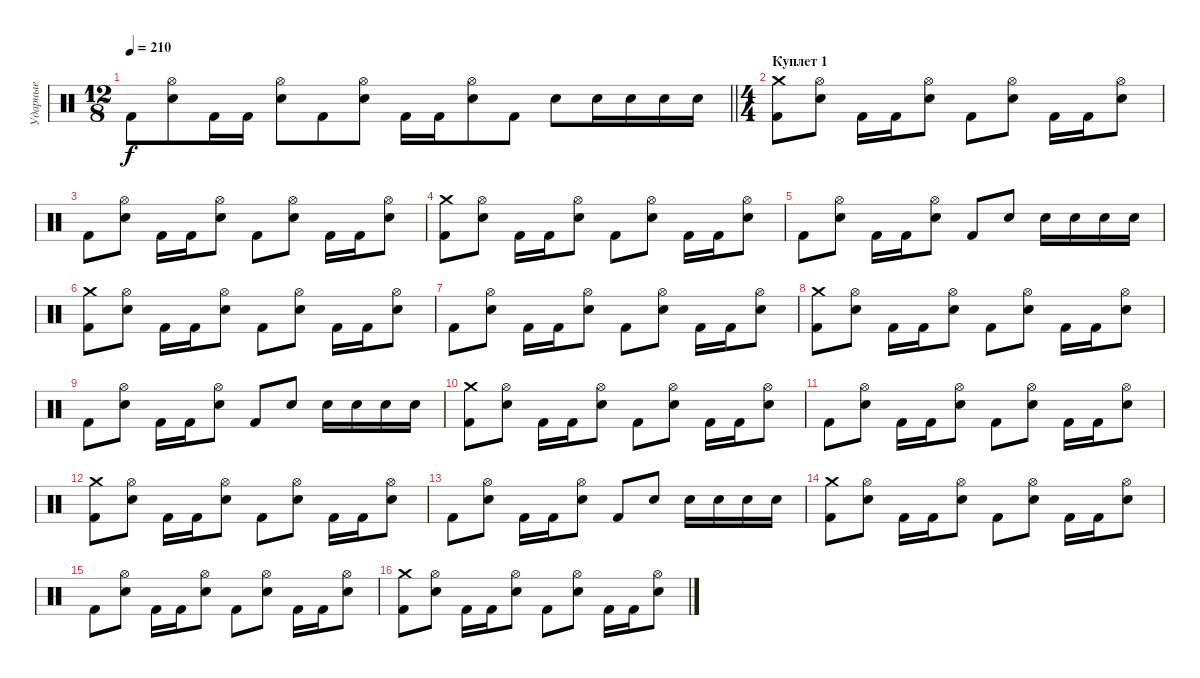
\track ("Ударные" "Ударные") {instrument percussion}
\staff {score}
\articulation defaults
\ts (12 8)
\tempo 210
\clef neutral
\barLineRight lightlight
\ks c "Kick (hit) 2".8{dy f}
("Electric Snare (hit)" "Hi-Hat (open)").8 "Kick (hit) 2".16 "Kick (hit) 2".16 ("Electric Snare (hit)" "Hi-Hat (open)").8 "Kick (hit) 2".8 ("Electric Snare (hit)" "Hi-Hat (open)").8 "Kick (hit) 2".16 "Kick (hit) 2".16 ("Electric Snare (hit)" "Hi-Hat (open)").8 "Kick (hit) 2".8 "Electric Snare (hit)".8 "Electric Snare (hit)".16 "Electric Snare (hit)".16 "Electric Snare (hit)".16 "Electric Snare (hit)".16 |
\ts (4 4)
\section ("" "Куплет 1")
("Kick (hit) 2" "Crash medium (hit)").8 ("Electric Snare (hit)" "Hi-Hat (open)").8 "Kick (hit) 2".16 "Kick (hit) 2".16 ("Electric Snare (hit)" "Hi-Hat (open)").8 "Kick (hit) 2".8 ("Electric Snare (hit)" "Hi-Hat (open)").8 "Kick (hit) 2".16 "Kick (hit) 2".16 ("Electric Snare (hit)" "Hi-Hat (open)").8 |
"Kick (hit) 2".8 ("Electric Snare (hit)" "Hi-Hat (open)").8 "Kick (hit) 2".16 "Kick (hit) 2".16 ("Electric Snare (hit)" "Hi-Hat (open)").8 "Kick (hit) 2".8 ("Electric Snare (hit)" "Hi-Hat (open)").8 "Kick (hit) 2".16 "Kick (hit) 2".16 ("Electric Snare (hit)" "Hi-Hat (open)").8 |
("Kick (hit) 2" "Crash medium (hit)").8 ("Electric Snare (hit)" "Hi-Hat (open)").8 "Kick (hit) 2".16 "Kick (hit) 2".16 ("Electric Snare (hit)" "Hi-Hat (open)").8 "Kick (hit) 2".8 ("Electric Snare (hit)" "Hi-Hat (open)").8 "Kick (hit) 2".16 "Kick (hit) 2".16 ("Electric Snare (hit)" "Hi-Hat (open)").8 |
"Kick (hit) 2".8 ("Electric Snare (hit)" "Hi-Hat (open)").8 "Kick (hit) 2".16 "Kick (hit) 2".16 ("Electric Snare (hit)" "Hi-Hat (open)").8 "Kick (hit) 2".8 "Electric Snare (hit)".8 "Electric Snare (hit)".16 "Electric Snare (hit)".16 "Electric Snare (hit)".16 "Electric Snare (hit)".16 |
("Kick (hit) 2" "Crash medium (hit)").8 ("Electric Snare (hit)" "Hi-Hat (open)").8 "Kick (hit) 2".16 "Kick (hit) 2".16 ("Electric Snare (hit)" "Hi-Hat (open)").8 "Kick (hit) 2".8 ("Electric Snare (hit)" "Hi-Hat (open)").8 "Kick (hit) 2".16 "Kick (hit) 2".16 ("Electric Snare (hit)" "Hi-Hat (open)").8 |
"Kick (hit) 2".8 ("Electric Snare (hit)" "Hi-Hat (open)").8 "Kick (hit) 2".16 "Kick (hit) 2".16 ("Electric Snare (hit)" "Hi-Hat (open)").8 "Kick (hit) 2".8 ("Electric Snare (hit)" "Hi-Hat (open)").8 "Kick (hit) 2".16 "Kick (hit) 2".16 ("Electric Snare (hit)" "Hi-Hat (open)").8 |
("Kick (hit) 2" "Crash medium (hit)").8 ("Electric Snare (hit)" "Hi-Hat (open)").8 "Kick (hit) 2".16 "Kick (hit) 2".16 ("Electric Snare (hit)" "Hi-Hat (open)").8 "Kick (hit) 2".8 ("Electric Snare (hit)" "Hi-Hat (open)").8 "Kick (hit) 2".16 "Kick (hit) 2".16 ("Electric Snare (hit)" "Hi-Hat (open)").8 |
"Kick (hit) 2".8 ("Electric Snare (hit)" "Hi-Hat (open)").8 "Kick (hit) 2".16 "Kick (hit) 2".16 ("Electric Snare (hit)" "Hi-Hat (open)").8 "Kick (hit) 2".8 "Electric Snare (hit)".8 "Electric Snare (hit)".16 "Electric Snare (hit)".16 "Electric Snare (hit)".16 "Electric Snare (hit)".16 |
("Kick (hit) 2" "Crash medium (hit)").8 ("Electric Snare (hit)" "Hi-Hat (open)").8 "Kick (hit) 2".16 "Kick (hit) 2".16 ("Electric Snare (hit)" "Hi-Hat (open)").8 "Kick (hit) 2".8 ("Electric Snare (hit)" "Hi-Hat (open)").8 "Kick (hit) 2".16 "Kick (hit) 2".16 ("Electric Snare (hit)" "Hi-Hat (open)").8 |
"Kick (hit) 2".8 ("Electric Snare (hit)" "Hi-Hat (open)").8 "Kick (hit) 2".16 "Kick (hit) 2".16 ("Electric Snare (hit)" "Hi-Hat (open)").8 "Kick (hit) 2".8 ("Electric Snare (hit)" "Hi-Hat (open)").8 "Kick (hit) 2".16 "Kick (hit) 2".16 ("Electric Snare (hit)" "Hi-Hat (open)").8 |
("Kick (hit) 2" "Crash medium (hit)").8 ("Electric Snare (hit)" "Hi-Hat (open)").8 "Kick (hit) 2".16 "Kick (hit) 2".16 ("Electric Snare (hit)" "Hi-Hat (open)").8 "Kick (hit) 2".8 ("Electric Snare (hit)" "Hi-Hat (open)").8 "Kick (hit) 2".16 "Kick (hit) 2".16 ("Electric Snare (hit)" "Hi-Hat (open)").8 |
"Kick (hit) 2".8 ("Electric Snare (hit)" "Hi-Hat (open)").8 "Kick (hit) 2".16 "Kick (hit) 2".16 ("Electric Snare (hit)" "Hi-Hat (open)").8 "Kick (hit) 2".8 "Electric Snare (hit)".8 "Electric Snare (hit)".16 "Electric Snare (hit)".16 "Electric Snare (hit)".16 "Electric Snare (hit)".16 |
("Kick (hit) 2" "Crash medium (hit)").8 ("Electric Snare (hit)" "Hi-Hat (open)").8 "Kick (hit) 2".16 "Kick (hit) 2".16 ("Electric Snare (hit)" "Hi-Hat (open)").8 "Kick (hit) 2".8 ("Electric Snare (hit)" "Hi-Hat (open)").8 "Kick (hit) 2".16 "Kick (hit) 2".16 ("Electric Snare (hit)" "Hi-Hat (open)").8 |
"Kick (hit) 2".8 ("Electric Snare (hit)" "Hi-Hat (open)").8 "Kick (hit) 2".16 "Kick (hit) 2".16 ("Electric Snare (hit)" "Hi-Hat (open)").8 "Kick (hit) 2".8 ("Electric Snare (hit)" "Hi-Hat (open)").8 "Kick (hit) 2".16 "Kick (hit) 2".16 ("Electric Snare (hit)" "Hi-Hat (open)").8 |
("Kick (hit) 2" "Crash medium (hit)").8 ("Electric Snare (hit)" "Hi-Hat (open)").8 "Kick (hit) 2".16 "Kick (hit) 2".16 ("Electric Snare (hit)" "Hi-Hat (open)").8 "Kick (hit) 2".8 ("Electric Snare (hit)" "Hi-Hat (open)").8 "Kick (hit) 2".16 "Kick (hit) 2".16 ("Electric Snare (hit)" "Hi-Hat (open)").8
